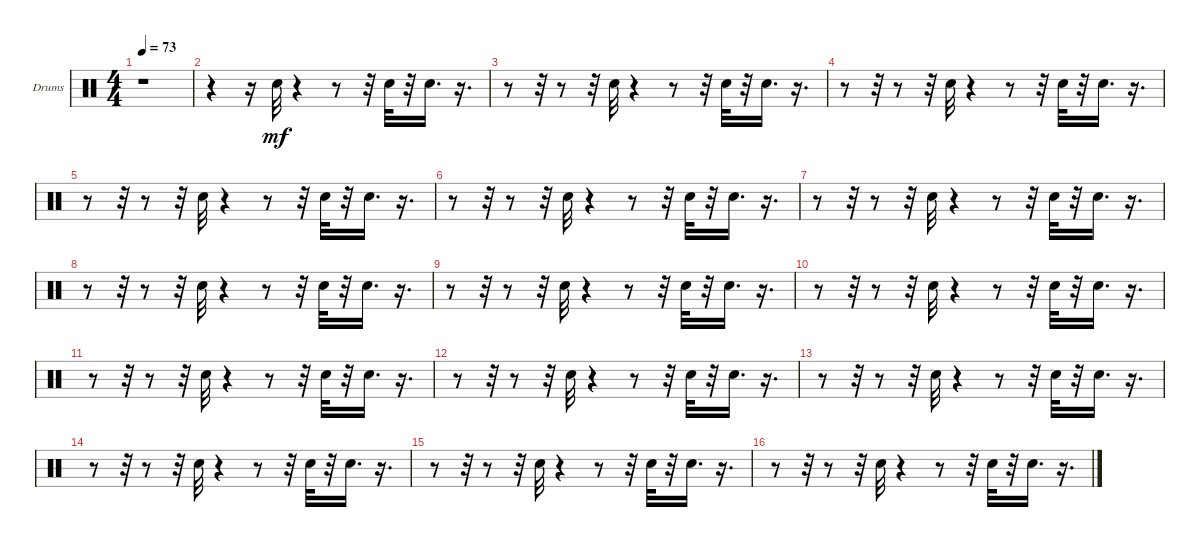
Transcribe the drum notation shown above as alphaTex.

\bracketExtendMode groupsimilarinstruments
\firstSystemTrackNameOrientation horizontal
\otherSystemsTrackNameOrientation horizontal
\track ("snare" "Drums") {instrument percussion}
\staff {score}
\articulation defaults
\ts (4 4)
\tempo 73
\clef neutral
\ks c
r.1{dy mf} |
r.4 r.16 "Snare (hit) 2".32 r.4 r.8 r.32 "Snare (hit) 2".32 r.32 "Snare (hit) 2".16{d} r.16{d} |
r.8 r.32 r.8 r.32 "Snare (hit) 2".32 r.4 r.8 r.32 "Snare (hit) 2".32 r.32 "Snare (hit) 2".16{d} r.16{d} |
r.8 r.32 r.8 r.32 "Snare (hit) 2".32 r.4 r.8 r.32 "Snare (hit) 2".32 r.32 "Snare (hit) 2".16{d} r.16{d} |
r.8 r.32 r.8 r.32 "Snare (hit) 2".32 r.4 r.8 r.32 "Snare (hit) 2".32 r.32 "Snare (hit) 2".16{d} r.16{d} |
r.8 r.32 r.8 r.32 "Snare (hit) 2".32 r.4 r.8 r.32 "Snare (hit) 2".32 r.32 "Snare (hit) 2".16{d} r.16{d} |
r.8 r.32 r.8 r.32 "Snare (hit) 2".32 r.4 r.8 r.32 "Snare (hit) 2".32 r.32 "Snare (hit) 2".16{d} r.16{d} |
r.8 r.32 r.8 r.32 "Snare (hit) 2".32 r.4 r.8 r.32 "Snare (hit) 2".32 r.32 "Snare (hit) 2".16{d} r.16{d} |
r.8 r.32 r.8 r.32 "Snare (hit) 2".32 r.4 r.8 r.32 "Snare (hit) 2".32 r.32 "Snare (hit) 2".16{d} r.16{d} |
r.8 r.32 r.8 r.32 "Snare (hit) 2".32 r.4 r.8 r.32 "Snare (hit) 2".32 r.32 "Snare (hit) 2".16{d} r.16{d} |
r.8 r.32 r.8 r.32 "Snare (hit) 2".32 r.4 r.8 r.32 "Snare (hit) 2".32 r.32 "Snare (hit) 2".16{d} r.16{d} |
r.8 r.32 r.8 r.32 "Snare (hit) 2".32 r.4 r.8 r.32 "Snare (hit) 2".32 r.32 "Snare (hit) 2".16{d} r.16{d} |
r.8 r.32 r.8 r.32 "Snare (hit) 2".32 r.4 r.8 r.32 "Snare (hit) 2".32 r.32 "Snare (hit) 2".16{d} r.16{d} |
r.8 r.32 r.8 r.32 "Snare (hit) 2".32 r.4 r.8 r.32 "Snare (hit) 2".32 r.32 "Snare (hit) 2".16{d} r.16{d} |
r.8 r.32 r.8 r.32 "Snare (hit) 2".32 r.4 r.8 r.32 "Snare (hit) 2".32 r.32 "Snare (hit) 2".16{d} r.16{d} |
r.8 r.32 r.8 r.32 "Snare (hit) 2".32 r.4 r.8 r.32 "Snare (hit) 2".32 r.32 "Snare (hit) 2".16{d} r.16{d}
